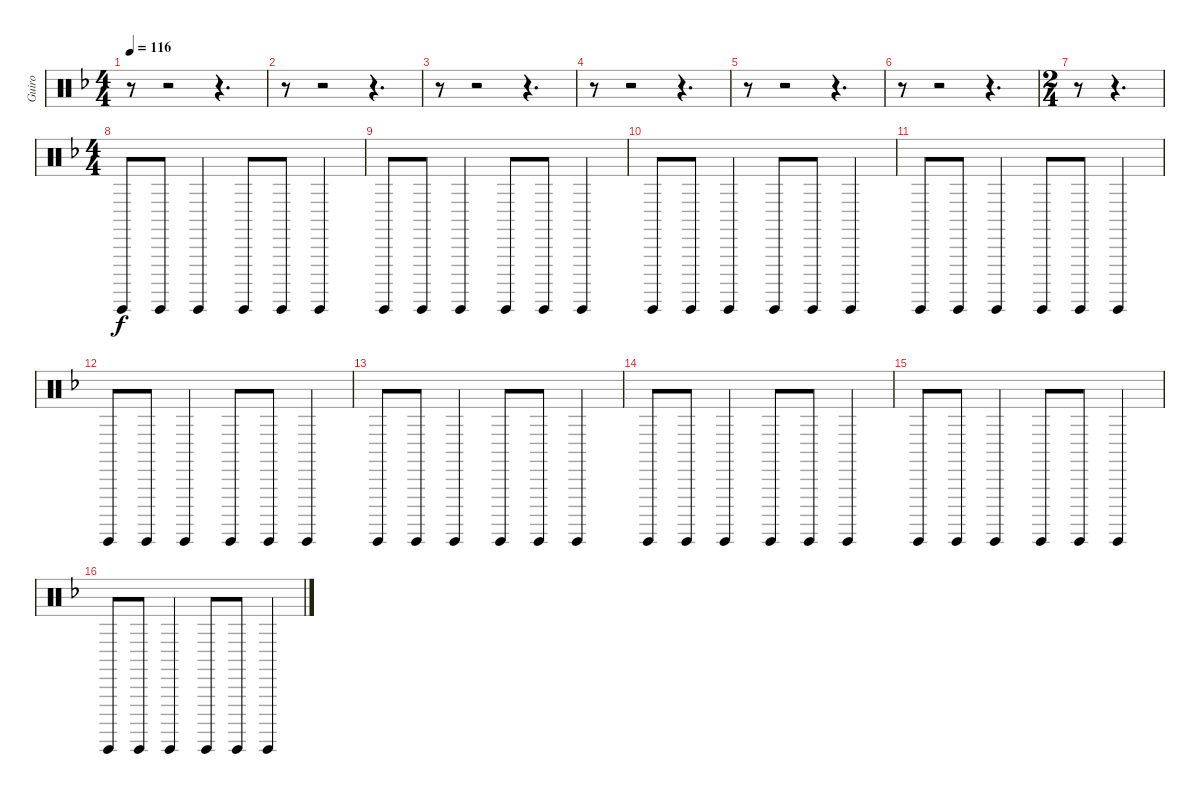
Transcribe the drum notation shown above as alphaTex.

\track ("Guiro" "Guiro") {instrument percussion}
\staff {score}
\articulation defaults
\ts (4 4)
\tempo 116
\clef neutral
\ks dminor
r.8{dy f} r.2 r.4{d} |
r.8 r.2 r.4{d} |
r.8 r.2 r.4{d} |
r.8 r.2 r.4{d} |
r.8 r.2 r.4{d} |
r.8 r.2 r.4{d} |
\ts (2 4)
r.8 r.4{d} |
\ts (4 4)
"Guiro (hit)".8 "Guiro (hit)".8 "Guiro (hit)".4 "Guiro (hit)".8 "Guiro (hit)".8 "Guiro (hit)".4 |
"Guiro (hit)".8 "Guiro (hit)".8 "Guiro (hit)".4 "Guiro (hit)".8 "Guiro (hit)".8 "Guiro (hit)".4 |
"Guiro (hit)".8 "Guiro (hit)".8 "Guiro (hit)".4 "Guiro (hit)".8 "Guiro (hit)".8 "Guiro (hit)".4 |
"Guiro (hit)".8 "Guiro (hit)".8 "Guiro (hit)".4 "Guiro (hit)".8 "Guiro (hit)".8 "Guiro (hit)".4 |
"Guiro (hit)".8 "Guiro (hit)".8 "Guiro (hit)".4 "Guiro (hit)".8 "Guiro (hit)".8 "Guiro (hit)".4 |
"Guiro (hit)".8 "Guiro (hit)".8 "Guiro (hit)".4 "Guiro (hit)".8 "Guiro (hit)".8 "Guiro (hit)".4 |
"Guiro (hit)".8 "Guiro (hit)".8 "Guiro (hit)".4 "Guiro (hit)".8 "Guiro (hit)".8 "Guiro (hit)".4 |
"Guiro (hit)".8 "Guiro (hit)".8 "Guiro (hit)".4 "Guiro (hit)".8 "Guiro (hit)".8 "Guiro (hit)".4 |
"Guiro (hit)".8 "Guiro (hit)".8 "Guiro (hit)".4 "Guiro (hit)".8 "Guiro (hit)".8 "Guiro (hit)".4
